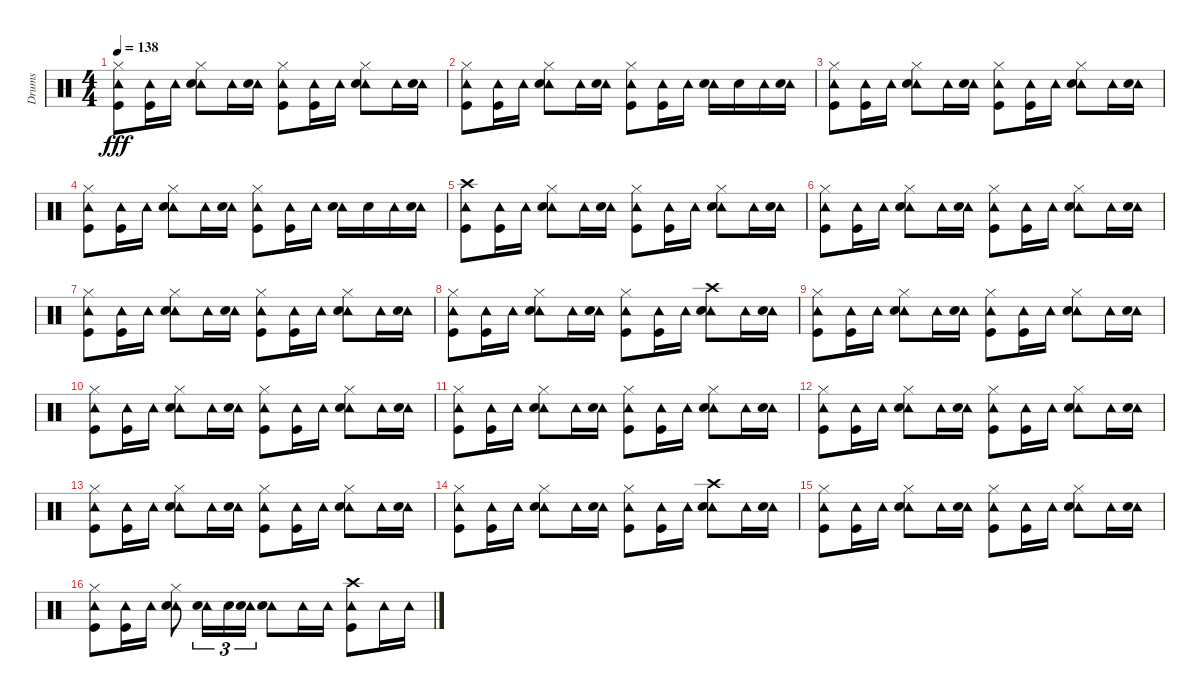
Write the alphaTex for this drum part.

\track ("Drums" "Drums") {instrument percussion}
\staff {score}
\articulation defaults
\ts (4 4)
\tempo 138
\clef neutral
\ks c
("Hi-Hat (closed)" "Tambourine (hit)" "Kick (hit)").8{dy fff} ("Tambourine (hit)" "Kick (hit)").16 "Tambourine (hit)".16 ("Hi-Hat (closed)" "Tambourine (hit)" "Snare (hit) 2").8 "Tambourine (hit)".16 ("Tambourine (hit)" "Snare (hit) 2").16 ("Hi-Hat (closed)" "Tambourine (hit)" "Kick (hit)").8 ("Tambourine (hit)" "Kick (hit)").16 "Tambourine (hit)".16 ("Hi-Hat (closed)" "Tambourine (hit)" "Snare (hit) 2").8 "Tambourine (hit)".16 ("Tambourine (hit)" "Snare (hit) 2").16 |
("Hi-Hat (closed)" "Tambourine (hit)" "Kick (hit)").8 ("Tambourine (hit)" "Kick (hit)").16 "Tambourine (hit)".16 ("Hi-Hat (closed)" "Tambourine (hit)" "Snare (hit) 2").8 "Tambourine (hit)".16 ("Tambourine (hit)" "Snare (hit) 2").16 ("Hi-Hat (closed)" "Tambourine (hit)" "Kick (hit)").8 ("Tambourine (hit)" "Kick (hit)").16 "Tambourine (hit)".16 ("Tambourine (hit)" "Snare (hit) 2").16 "Snare (hit) 2".16 "Tambourine (hit)".16 ("Tambourine (hit)" "Snare (hit) 2").16 |
("Hi-Hat (closed)" "Tambourine (hit)" "Kick (hit)").8 ("Tambourine (hit)" "Kick (hit)").16 "Tambourine (hit)".16 ("Hi-Hat (closed)" "Tambourine (hit)" "Snare (hit) 2").8 "Tambourine (hit)".16 ("Tambourine (hit)" "Snare (hit) 2").16 ("Hi-Hat (closed)" "Tambourine (hit)" "Kick (hit)").8 ("Tambourine (hit)" "Kick (hit)").16 "Tambourine (hit)".16 ("Hi-Hat (closed)" "Tambourine (hit)" "Snare (hit) 2").8 "Tambourine (hit)".16 ("Tambourine (hit)" "Snare (hit) 2").16 |
("Hi-Hat (closed)" "Tambourine (hit)" "Kick (hit)").8 ("Tambourine (hit)" "Kick (hit)").16 "Tambourine (hit)".16 ("Hi-Hat (closed)" "Tambourine (hit)" "Snare (hit) 2").8 "Tambourine (hit)".16 ("Tambourine (hit)" "Snare (hit) 2").16 ("Hi-Hat (closed)" "Tambourine (hit)" "Kick (hit)").8 ("Tambourine (hit)" "Kick (hit)").16 "Tambourine (hit)".16 ("Tambourine (hit)" "Snare (hit) 2").16 "Snare (hit) 2".16 "Tambourine (hit)".16 ("Tambourine (hit)" "Snare (hit) 2").16 |
("Crash high (hit)" "Tambourine (hit)" "Kick (hit)").8 ("Tambourine (hit)" "Kick (hit)").16 "Tambourine (hit)".16 ("Hi-Hat (closed)" "Tambourine (hit)" "Snare (hit) 2").8 "Tambourine (hit)".16 ("Tambourine (hit)" "Snare (hit) 2").16 ("Hi-Hat (closed)" "Tambourine (hit)" "Kick (hit)").8 ("Tambourine (hit)" "Kick (hit)").16 "Tambourine (hit)".16 ("Hi-Hat (closed)" "Tambourine (hit)" "Snare (hit) 2").8 "Tambourine (hit)".16 ("Tambourine (hit)" "Snare (hit) 2").16 |
("Hi-Hat (closed)" "Tambourine (hit)" "Kick (hit)").8 ("Tambourine (hit)" "Kick (hit)").16 "Tambourine (hit)".16 ("Hi-Hat (closed)" "Tambourine (hit)" "Snare (hit) 2").8 "Tambourine (hit)".16 ("Tambourine (hit)" "Snare (hit) 2").16 ("Hi-Hat (closed)" "Tambourine (hit)" "Kick (hit)").8 ("Tambourine (hit)" "Kick (hit)").16 "Tambourine (hit)".16 ("Hi-Hat (closed)" "Tambourine (hit)" "Snare (hit) 2").8 "Tambourine (hit)".16 ("Tambourine (hit)" "Snare (hit) 2").16 |
("Hi-Hat (closed)" "Tambourine (hit)" "Kick (hit)").8 ("Tambourine (hit)" "Kick (hit)").16 "Tambourine (hit)".16 ("Hi-Hat (closed)" "Tambourine (hit)" "Snare (hit) 2").8 "Tambourine (hit)".16 ("Tambourine (hit)" "Snare (hit) 2").16 ("Hi-Hat (closed)" "Tambourine (hit)" "Kick (hit)").8 ("Tambourine (hit)" "Kick (hit)").16 "Tambourine (hit)".16 ("Hi-Hat (closed)" "Tambourine (hit)" "Snare (hit) 2").8 "Tambourine (hit)".16 ("Tambourine (hit)" "Snare (hit) 2").16 |
("Hi-Hat (closed)" "Tambourine (hit)" "Kick (hit)").8 ("Tambourine (hit)" "Kick (hit)").16 "Tambourine (hit)".16 ("Hi-Hat (closed)" "Tambourine (hit)" "Snare (hit) 2").8 "Tambourine (hit)".16 ("Tambourine (hit)" "Snare (hit) 2").16 ("Hi-Hat (closed)" "Tambourine (hit)" "Kick (hit)").8 ("Tambourine (hit)" "Kick (hit)").16 "Tambourine (hit)".16 ("Crash high (hit)" "Tambourine (hit)" "Snare (hit) 2").8 "Tambourine (hit)".16 ("Tambourine (hit)" "Snare (hit) 2").16 |
("Hi-Hat (closed)" "Tambourine (hit)" "Kick (hit)").8 ("Tambourine (hit)" "Kick (hit)").16 "Tambourine (hit)".16 ("Hi-Hat (closed)" "Tambourine (hit)" "Snare (hit) 2").8 "Tambourine (hit)".16 ("Tambourine (hit)" "Snare (hit) 2").16 ("Hi-Hat (closed)" "Tambourine (hit)" "Kick (hit)").8 ("Tambourine (hit)" "Kick (hit)").16 "Tambourine (hit)".16 ("Hi-Hat (closed)" "Tambourine (hit)" "Snare (hit) 2").8 "Tambourine (hit)".16 ("Tambourine (hit)" "Snare (hit) 2").16 |
("Hi-Hat (closed)" "Tambourine (hit)" "Kick (hit)").8 ("Tambourine (hit)" "Kick (hit)").16 "Tambourine (hit)".16 ("Hi-Hat (closed)" "Tambourine (hit)" "Snare (hit) 2").8 "Tambourine (hit)".16 ("Tambourine (hit)" "Snare (hit) 2").16 ("Hi-Hat (closed)" "Tambourine (hit)" "Kick (hit)").8 ("Tambourine (hit)" "Kick (hit)").16 "Tambourine (hit)".16 ("Hi-Hat (closed)" "Tambourine (hit)" "Snare (hit) 2").8 "Tambourine (hit)".16 ("Tambourine (hit)" "Snare (hit) 2").16 |
("Hi-Hat (closed)" "Tambourine (hit)" "Kick (hit)").8 ("Tambourine (hit)" "Kick (hit)").16 "Tambourine (hit)".16 ("Hi-Hat (closed)" "Tambourine (hit)" "Snare (hit) 2").8 "Tambourine (hit)".16 ("Tambourine (hit)" "Snare (hit) 2").16 ("Hi-Hat (closed)" "Tambourine (hit)" "Kick (hit)").8 ("Tambourine (hit)" "Kick (hit)").16 "Tambourine (hit)".16 ("Hi-Hat (closed)" "Tambourine (hit)" "Snare (hit) 2").8 "Tambourine (hit)".16 ("Tambourine (hit)" "Snare (hit) 2").16 |
("Hi-Hat (closed)" "Tambourine (hit)" "Kick (hit)").8 ("Tambourine (hit)" "Kick (hit)").16 "Tambourine (hit)".16 ("Hi-Hat (closed)" "Tambourine (hit)" "Snare (hit) 2").8 "Tambourine (hit)".16 ("Tambourine (hit)" "Snare (hit) 2").16 ("Hi-Hat (closed)" "Tambourine (hit)" "Kick (hit)").8 ("Tambourine (hit)" "Kick (hit)").16 "Tambourine (hit)".16 ("Hi-Hat (closed)" "Tambourine (hit)" "Snare (hit) 2").8 "Tambourine (hit)".16 ("Tambourine (hit)" "Snare (hit) 2").16 |
("Hi-Hat (closed)" "Tambourine (hit)" "Kick (hit)").8 ("Tambourine (hit)" "Kick (hit)").16 "Tambourine (hit)".16 ("Hi-Hat (closed)" "Tambourine (hit)" "Snare (hit) 2").8 "Tambourine (hit)".16 ("Tambourine (hit)" "Snare (hit) 2").16 ("Hi-Hat (closed)" "Tambourine (hit)" "Kick (hit)").8 ("Tambourine (hit)" "Kick (hit)").16 "Tambourine (hit)".16 ("Hi-Hat (closed)" "Tambourine (hit)" "Snare (hit) 2").8 "Tambourine (hit)".16 ("Tambourine (hit)" "Snare (hit) 2").16 |
("Hi-Hat (closed)" "Tambourine (hit)" "Kick (hit)").8 ("Tambourine (hit)" "Kick (hit)").16 "Tambourine (hit)".16 ("Hi-Hat (closed)" "Tambourine (hit)" "Snare (hit) 2").8 "Tambourine (hit)".16 ("Tambourine (hit)" "Snare (hit) 2").16 ("Hi-Hat (closed)" "Tambourine (hit)" "Kick (hit)").8 ("Tambourine (hit)" "Kick (hit)").16 "Tambourine (hit)".16 ("Crash high (hit)" "Tambourine (hit)" "Snare (hit) 2").8 "Tambourine (hit)".16 ("Tambourine (hit)" "Snare (hit) 2").16 |
("Hi-Hat (closed)" "Tambourine (hit)" "Kick (hit)").8 ("Tambourine (hit)" "Kick (hit)").16 "Tambourine (hit)".16 ("Hi-Hat (closed)" "Tambourine (hit)" "Snare (hit) 2").8 "Tambourine (hit)".16 ("Tambourine (hit)" "Snare (hit) 2").16 ("Hi-Hat (closed)" "Tambourine (hit)" "Kick (hit)").8 ("Tambourine (hit)" "Kick (hit)").16 "Tambourine (hit)".16 ("Hi-Hat (closed)" "Tambourine (hit)" "Snare (hit) 2").8 "Tambourine (hit)".16 ("Tambourine (hit)" "Snare (hit) 2").16 |
("Hi-Hat (closed)" "Tambourine (hit)" "Kick (hit)").8 ("Tambourine (hit)" "Kick (hit)").16 "Tambourine (hit)".16 ("Hi-Hat (closed)" "Tambourine (hit)" "Snare (hit) 2").8 ("Tambourine (hit)" "Snare (hit) 2").16{tu (3 2)} "Snare (hit) 2".16{tu (3 2)} ("Tambourine (hit)" "Snare (hit) 2").16{tu (3 2)} ("Tambourine (hit)" "Snare (hit) 2").8 "Tambourine (hit)".16 "Tambourine (hit)".16 ("Crash high (hit)" "Tambourine (hit)" "Kick (hit)").8 "Tambourine (hit)".16 "Tambourine (hit)".16
